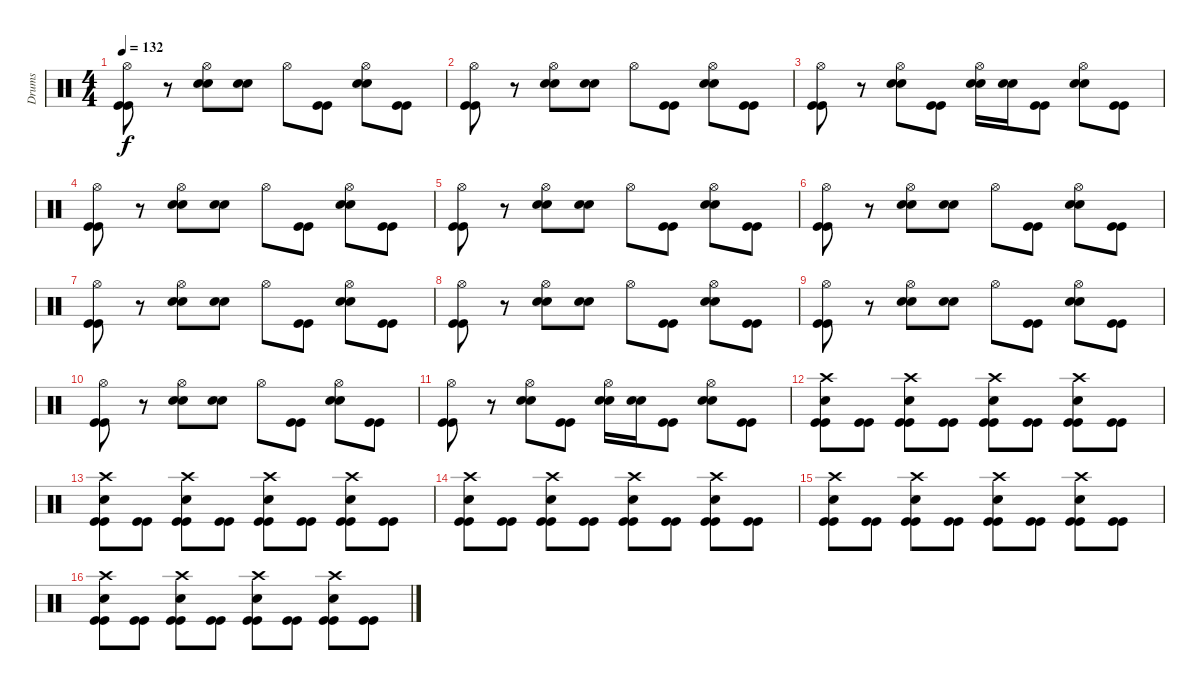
\track ("Drums" "Drums") {instrument percussion}
\staff {score}
\articulation defaults
\ts (4 4)
\tempo 132
\clef neutral
\ks c
("Hi-Hat (open)" "Kick (hit)" "Kick (hit)").8{dy f} r.8 ("Hi-Hat (open)" "Electric Snare (hit)" "Electric Snare (hit)").8 ("Electric Snare (hit)" "Electric Snare (hit)").8 "Hi-Hat (open)".8 ("Kick (hit)" "Kick (hit)").8 ("Hi-Hat (open)" "Electric Snare (hit)" "Electric Snare (hit)").8 ("Kick (hit)" "Kick (hit)").8 |
("Hi-Hat (open)" "Kick (hit)" "Kick (hit)").8 r.8 ("Hi-Hat (open)" "Electric Snare (hit)" "Electric Snare (hit)").8 ("Electric Snare (hit)" "Electric Snare (hit)").8 "Hi-Hat (open)".8 ("Kick (hit)" "Kick (hit)").8 ("Hi-Hat (open)" "Electric Snare (hit)" "Electric Snare (hit)").8 ("Kick (hit)" "Kick (hit)").8 |
("Hi-Hat (open)" "Kick (hit)" "Kick (hit)").8 r.8 ("Hi-Hat (open)" "Electric Snare (hit)" "Electric Snare (hit)").8 ("Kick (hit)" "Kick (hit)").8 ("Hi-Hat (open)" "Electric Snare (hit)" "Electric Snare (hit)").16 ("Electric Snare (hit)" "Electric Snare (hit)").16 ("Kick (hit)" "Kick (hit)").8 ("Hi-Hat (open)" "Electric Snare (hit)" "Electric Snare (hit)").8 ("Kick (hit)" "Kick (hit)").8 |
("Hi-Hat (open)" "Kick (hit)" "Kick (hit)").8 r.8 ("Hi-Hat (open)" "Electric Snare (hit)" "Electric Snare (hit)").8 ("Electric Snare (hit)" "Electric Snare (hit)").8 "Hi-Hat (open)".8 ("Kick (hit)" "Kick (hit)").8 ("Hi-Hat (open)" "Electric Snare (hit)" "Electric Snare (hit)").8 ("Kick (hit)" "Kick (hit)").8 |
("Hi-Hat (open)" "Kick (hit)" "Kick (hit)").8 r.8 ("Hi-Hat (open)" "Electric Snare (hit)" "Electric Snare (hit)").8 ("Electric Snare (hit)" "Electric Snare (hit)").8 "Hi-Hat (open)".8 ("Kick (hit)" "Kick (hit)").8 ("Hi-Hat (open)" "Electric Snare (hit)" "Electric Snare (hit)").8 ("Kick (hit)" "Kick (hit)").8 |
("Hi-Hat (open)" "Kick (hit)" "Kick (hit)").8 r.8 ("Hi-Hat (open)" "Electric Snare (hit)" "Electric Snare (hit)").8 ("Electric Snare (hit)" "Electric Snare (hit)").8 "Hi-Hat (open)".8 ("Kick (hit)" "Kick (hit)").8 ("Hi-Hat (open)" "Electric Snare (hit)" "Electric Snare (hit)").8 ("Kick (hit)" "Kick (hit)").8 |
("Hi-Hat (open)" "Kick (hit)" "Kick (hit)").8 r.8 ("Hi-Hat (open)" "Electric Snare (hit)" "Electric Snare (hit)").8 ("Electric Snare (hit)" "Electric Snare (hit)").8 "Hi-Hat (open)".8 ("Kick (hit)" "Kick (hit)").8 ("Hi-Hat (open)" "Electric Snare (hit)" "Electric Snare (hit)").8 ("Kick (hit)" "Kick (hit)").8 |
("Hi-Hat (open)" "Kick (hit)" "Kick (hit)").8 r.8 ("Hi-Hat (open)" "Electric Snare (hit)" "Electric Snare (hit)").8 ("Electric Snare (hit)" "Electric Snare (hit)").8 "Hi-Hat (open)".8 ("Kick (hit)" "Kick (hit)").8 ("Hi-Hat (open)" "Electric Snare (hit)" "Electric Snare (hit)").8 ("Kick (hit)" "Kick (hit)").8 |
("Hi-Hat (open)" "Kick (hit)" "Kick (hit)").8 r.8 ("Hi-Hat (open)" "Electric Snare (hit)" "Electric Snare (hit)").8 ("Electric Snare (hit)" "Electric Snare (hit)").8 "Hi-Hat (open)".8 ("Kick (hit)" "Kick (hit)").8 ("Hi-Hat (open)" "Electric Snare (hit)" "Electric Snare (hit)").8 ("Kick (hit)" "Kick (hit)").8 |
("Hi-Hat (open)" "Kick (hit)" "Kick (hit)").8 r.8 ("Hi-Hat (open)" "Electric Snare (hit)" "Electric Snare (hit)").8 ("Electric Snare (hit)" "Electric Snare (hit)").8 "Hi-Hat (open)".8 ("Kick (hit)" "Kick (hit)").8 ("Hi-Hat (open)" "Electric Snare (hit)" "Electric Snare (hit)").8 ("Kick (hit)" "Kick (hit)").8 |
("Hi-Hat (open)" "Kick (hit)" "Kick (hit)").8 r.8 ("Hi-Hat (open)" "Electric Snare (hit)" "Electric Snare (hit)").8 ("Kick (hit)" "Kick (hit)").8 ("Hi-Hat (open)" "Electric Snare (hit)" "Electric Snare (hit)").16 ("Electric Snare (hit)" "Electric Snare (hit)").16 ("Kick (hit)" "Kick (hit)").8 ("Hi-Hat (open)" "Electric Snare (hit)" "Electric Snare (hit)").8 ("Kick (hit)" "Kick (hit)").8 |
("Crash high (hit)" "Electric Snare (hit)" "Kick (hit)" "Kick (hit)").8 ("Kick (hit)" "Kick (hit)").8 ("Crash high (hit)" "Electric Snare (hit)" "Kick (hit)" "Kick (hit)").8 ("Kick (hit)" "Kick (hit)").8 ("Crash high (hit)" "Electric Snare (hit)" "Kick (hit)" "Kick (hit)").8 ("Kick (hit)" "Kick (hit)").8 ("Crash high (hit)" "Electric Snare (hit)" "Kick (hit)" "Kick (hit)").8 ("Kick (hit)" "Kick (hit)").8 |
("Crash high (hit)" "Electric Snare (hit)" "Kick (hit)" "Kick (hit)").8 ("Kick (hit)" "Kick (hit)").8 ("Crash high (hit)" "Electric Snare (hit)" "Kick (hit)" "Kick (hit)").8 ("Kick (hit)" "Kick (hit)").8 ("Crash high (hit)" "Electric Snare (hit)" "Kick (hit)" "Kick (hit)").8 ("Kick (hit)" "Kick (hit)").8 ("Crash high (hit)" "Electric Snare (hit)" "Kick (hit)" "Kick (hit)").8 ("Kick (hit)" "Kick (hit)").8 |
("Crash high (hit)" "Electric Snare (hit)" "Kick (hit)" "Kick (hit)").8 ("Kick (hit)" "Kick (hit)").8 ("Crash high (hit)" "Electric Snare (hit)" "Kick (hit)" "Kick (hit)").8 ("Kick (hit)" "Kick (hit)").8 ("Crash high (hit)" "Electric Snare (hit)" "Kick (hit)" "Kick (hit)").8 ("Kick (hit)" "Kick (hit)").8 ("Crash high (hit)" "Electric Snare (hit)" "Kick (hit)" "Kick (hit)").8 ("Kick (hit)" "Kick (hit)").8 |
("Crash high (hit)" "Electric Snare (hit)" "Kick (hit)" "Kick (hit)").8 ("Kick (hit)" "Kick (hit)").8 ("Crash high (hit)" "Electric Snare (hit)" "Kick (hit)" "Kick (hit)").8 ("Kick (hit)" "Kick (hit)").8 ("Crash high (hit)" "Electric Snare (hit)" "Kick (hit)" "Kick (hit)").8 ("Kick (hit)" "Kick (hit)").8 ("Crash high (hit)" "Electric Snare (hit)" "Kick (hit)" "Kick (hit)").8 ("Kick (hit)" "Kick (hit)").8 |
("Crash high (hit)" "Electric Snare (hit)" "Kick (hit)" "Kick (hit)").8 ("Kick (hit)" "Kick (hit)").8 ("Crash high (hit)" "Electric Snare (hit)" "Kick (hit)" "Kick (hit)").8 ("Kick (hit)" "Kick (hit)").8 ("Crash high (hit)" "Electric Snare (hit)" "Kick (hit)" "Kick (hit)").8 ("Kick (hit)" "Kick (hit)").8 ("Crash high (hit)" "Electric Snare (hit)" "Kick (hit)" "Kick (hit)").8 ("Kick (hit)" "Kick (hit)").8
